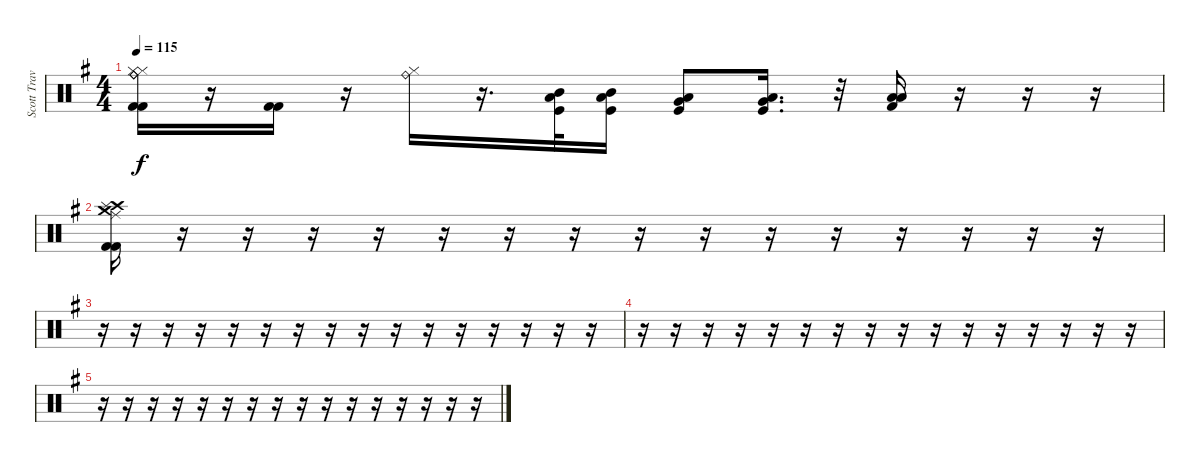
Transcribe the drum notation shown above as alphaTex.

\track ("Scott Travis" "Scott Trav") {instrument percussion}
\staff {score}
\articulation defaults
\ts (4 4)
\tempo 115
\clef neutral
\ks eminor
("Hi-Hat (closed)" "Hi-Hat (closed)" "Ride (bell)" "Ride (bell)" "Kick (hit) 2" "Kick (hit) 2").16{dy f} r.16 ("Kick (hit) 2" "Kick (hit) 2").16 r.16 ("Hi-Hat (closed)" "Ride (bell)").16 r.16{d} ("Mid Tom (hit)" "Low Tom (hit)" "Kick (hit)").32 ("Mid Tom (hit)" "Low Tom (hit)" "Kick (hit)").16 ("Low Tom (hit)" "Very Low Tom (hit)" "Kick (hit)").8 ("Very Low Tom (hit)" "Low Floor Tom (hit)" "Kick (hit)").16{d} r.32 ("Low Floor Tom (hit)" "Low Floor Tom (hit)" "Kick (hit) 2").16 r.16 r.16 r.16 |
("Crash high (hit)" "Crash medium (hit)" "Splash (hit)" "Ride (middle)" "Kick (hit) 2" "Kick (hit) 2").16 r.16 r.16 r.16 r.16 r.16 r.16 r.16 r.16 r.16 r.16 r.16 r.16 r.16 r.16 r.16 |
r.16 r.16 r.16 r.16 r.16 r.16 r.16 r.16 r.16 r.16 r.16 r.16 r.16 r.16 r.16 r.16 |
r.16 r.16 r.16 r.16 r.16 r.16 r.16 r.16 r.16 r.16 r.16 r.16 r.16 r.16 r.16 r.16 |
r.16 r.16 r.16 r.16 r.16 r.16 r.16 r.16 r.16 r.16 r.16 r.16 r.16 r.16 r.16 r.16
